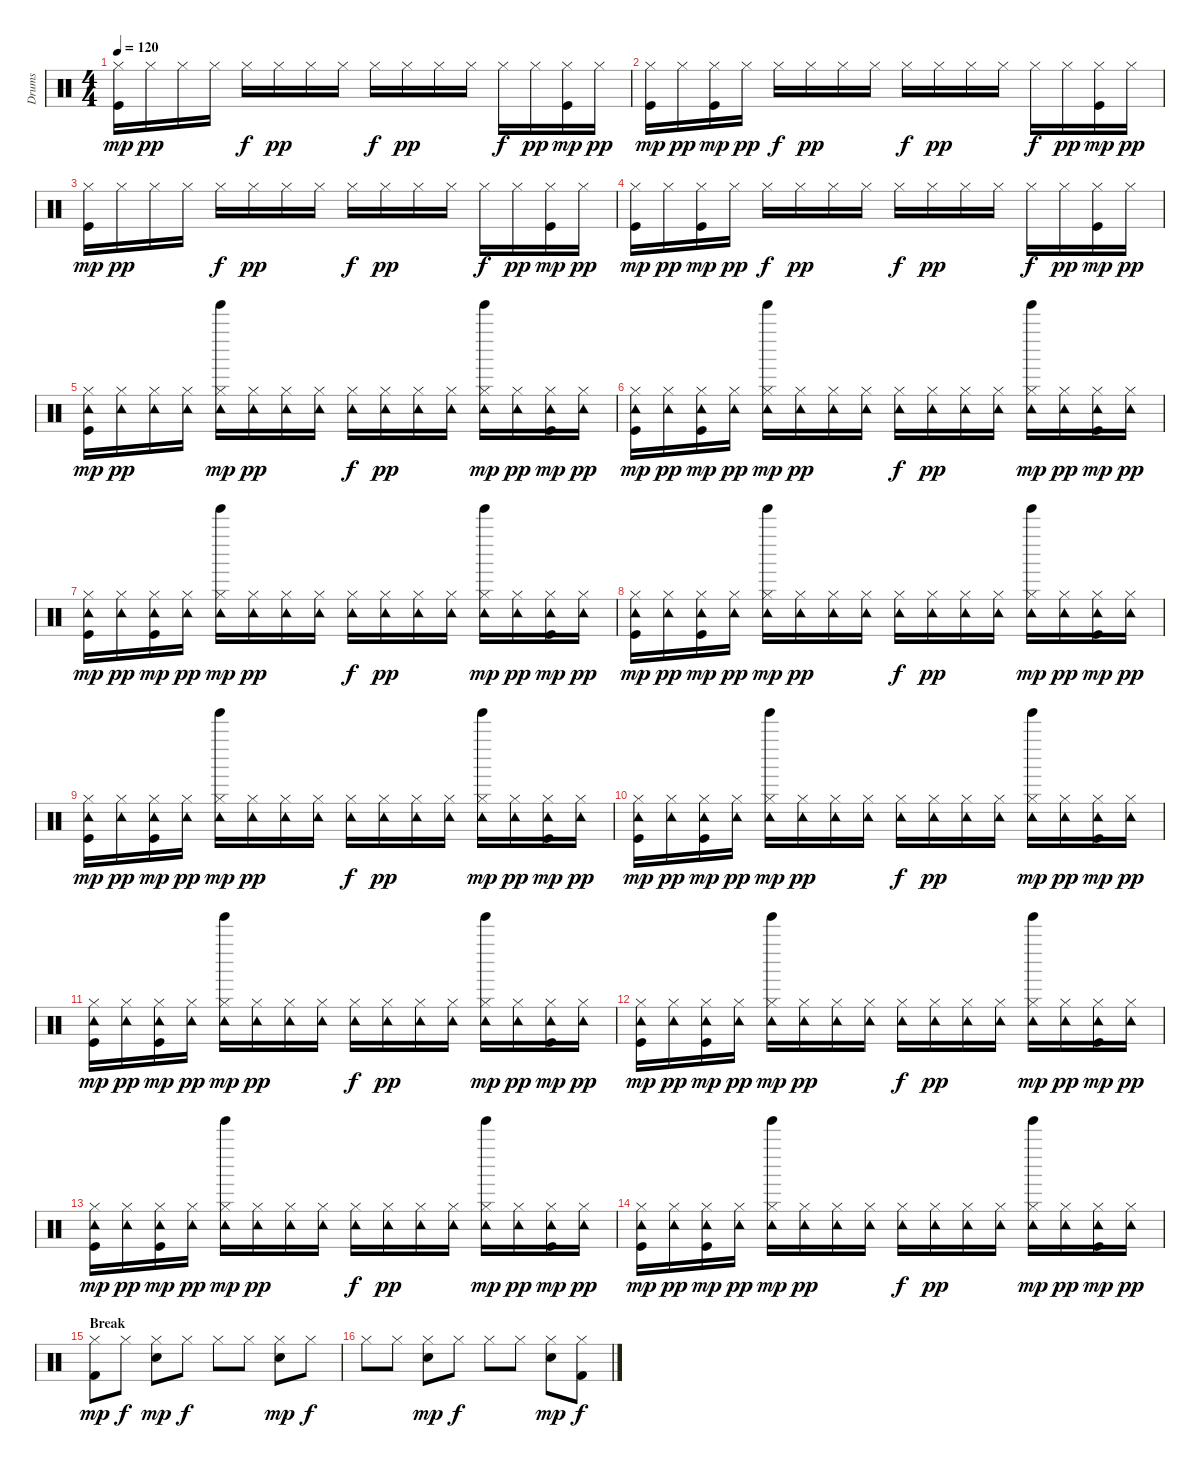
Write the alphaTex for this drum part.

\track ("Drums" "Drums") {instrument percussion}
\staff {score}
\articulation defaults
\ts (4 4)
\tempo 120
\clef neutral
\ks c
("Hi-Hat (closed)" "Kick (hit)").16{dy mp} "Hi-Hat (closed)".16{dy pp} "Hi-Hat (closed)".16 "Hi-Hat (closed)".16 "Hi-Hat (closed)".16{dy f} "Hi-Hat (closed)".16{dy pp} "Hi-Hat (closed)".16 "Hi-Hat (closed)".16 "Hi-Hat (closed)".16{dy f} "Hi-Hat (closed)".16{dy pp} "Hi-Hat (closed)".16 "Hi-Hat (closed)".16 "Hi-Hat (closed)".16{dy f} "Hi-Hat (closed)".16{dy pp} ("Hi-Hat (closed)" "Kick (hit)").16{dy mp} "Hi-Hat (closed)".16{dy pp} |
("Hi-Hat (closed)" "Kick (hit)").16{dy mp} "Hi-Hat (closed)".16{dy pp} ("Hi-Hat (closed)" "Kick (hit)").16{dy mp} "Hi-Hat (closed)".16{dy pp} "Hi-Hat (closed)".16{dy f} "Hi-Hat (closed)".16{dy pp} "Hi-Hat (closed)".16 "Hi-Hat (closed)".16 "Hi-Hat (closed)".16{dy f} "Hi-Hat (closed)".16{dy pp} "Hi-Hat (closed)".16 "Hi-Hat (closed)".16 "Hi-Hat (closed)".16{dy f} "Hi-Hat (closed)".16{dy pp} ("Hi-Hat (closed)" "Kick (hit)").16{dy mp} "Hi-Hat (closed)".16{dy pp} |
("Hi-Hat (closed)" "Kick (hit)").16{dy mp} "Hi-Hat (closed)".16{dy pp} "Hi-Hat (closed)".16 "Hi-Hat (closed)".16 "Hi-Hat (closed)".16{dy f} "Hi-Hat (closed)".16{dy pp} "Hi-Hat (closed)".16 "Hi-Hat (closed)".16 "Hi-Hat (closed)".16{dy f} "Hi-Hat (closed)".16{dy pp} "Hi-Hat (closed)".16 "Hi-Hat (closed)".16 "Hi-Hat (closed)".16{dy f} "Hi-Hat (closed)".16{dy pp} ("Hi-Hat (closed)" "Kick (hit)").16{dy mp} "Hi-Hat (closed)".16{dy pp} |
("Hi-Hat (closed)" "Kick (hit)").16{dy mp} "Hi-Hat (closed)".16{dy pp} ("Hi-Hat (closed)" "Kick (hit)").16{dy mp} "Hi-Hat (closed)".16{dy pp} "Hi-Hat (closed)".16{dy f} "Hi-Hat (closed)".16{dy pp} "Hi-Hat (closed)".16 "Hi-Hat (closed)".16 "Hi-Hat (closed)".16{dy f} "Hi-Hat (closed)".16{dy pp} "Hi-Hat (closed)".16 "Hi-Hat (closed)".16 "Hi-Hat (closed)".16{dy f} "Hi-Hat (closed)".16{dy pp} ("Hi-Hat (closed)" "Kick (hit)").16{dy mp} "Hi-Hat (closed)".16{dy pp} |
("Tambourine (hit)" "Hi-Hat (closed)" "Kick (hit)").16{dy mp} ("Tambourine (hit)" "Hi-Hat (closed)").16{dy pp} ("Tambourine (hit)" "Hi-Hat (closed)").16 ("Tambourine (hit)" "Hi-Hat (closed)").16 ("Tambourine (hit)" "Hi-Hat (closed)" "Tinkle Bell (hit)").16{dy mp} ("Tambourine (hit)" "Hi-Hat (closed)").16{dy pp} ("Tambourine (hit)" "Hi-Hat (closed)").16 ("Tambourine (hit)" "Hi-Hat (closed)").16 ("Tambourine (hit)" "Hi-Hat (closed)").16{dy f} ("Tambourine (hit)" "Hi-Hat (closed)").16{dy pp} ("Tambourine (hit)" "Hi-Hat (closed)").16 ("Tambourine (hit)" "Hi-Hat (closed)").16 ("Tambourine (hit)" "Hi-Hat (closed)" "Tinkle Bell (hit)").16{dy mp} ("Tambourine (hit)" "Hi-Hat (closed)").16{dy pp} ("Tambourine (hit)" "Hi-Hat (closed)" "Kick (hit)").16{dy mp} ("Tambourine (hit)" "Hi-Hat (closed)").16{dy pp} |
("Tambourine (hit)" "Hi-Hat (closed)" "Kick (hit)").16{dy mp} ("Tambourine (hit)" "Hi-Hat (closed)").16{dy pp} ("Tambourine (hit)" "Hi-Hat (closed)" "Kick (hit)").16{dy mp} ("Tambourine (hit)" "Hi-Hat (closed)").16{dy pp} ("Tambourine (hit)" "Hi-Hat (closed)" "Tinkle Bell (hit)").16{dy mp} ("Tambourine (hit)" "Hi-Hat (closed)").16{dy pp} ("Tambourine (hit)" "Hi-Hat (closed)").16 ("Tambourine (hit)" "Hi-Hat (closed)").16 ("Tambourine (hit)" "Hi-Hat (closed)").16{dy f} ("Tambourine (hit)" "Hi-Hat (closed)").16{dy pp} ("Tambourine (hit)" "Hi-Hat (closed)").16 ("Tambourine (hit)" "Hi-Hat (closed)").16 ("Tambourine (hit)" "Hi-Hat (closed)" "Tinkle Bell (hit)").16{dy mp} ("Tambourine (hit)" "Hi-Hat (closed)").16{dy pp} ("Tambourine (hit)" "Hi-Hat (closed)" "Kick (hit)").16{dy mp} ("Tambourine (hit)" "Hi-Hat (closed)").16{dy pp} |
("Tambourine (hit)" "Hi-Hat (closed)" "Kick (hit)").16{dy mp} ("Tambourine (hit)" "Hi-Hat (closed)").16{dy pp} ("Tambourine (hit)" "Hi-Hat (closed)" "Kick (hit)").16{dy mp} ("Tambourine (hit)" "Hi-Hat (closed)").16{dy pp} ("Tambourine (hit)" "Hi-Hat (closed)" "Tinkle Bell (hit)").16{dy mp} ("Tambourine (hit)" "Hi-Hat (closed)").16{dy pp} ("Tambourine (hit)" "Hi-Hat (closed)").16 ("Tambourine (hit)" "Hi-Hat (closed)").16 ("Tambourine (hit)" "Hi-Hat (closed)").16{dy f} ("Tambourine (hit)" "Hi-Hat (closed)").16{dy pp} ("Tambourine (hit)" "Hi-Hat (closed)").16 ("Tambourine (hit)" "Hi-Hat (closed)").16 ("Tambourine (hit)" "Hi-Hat (closed)" "Tinkle Bell (hit)").16{dy mp} ("Tambourine (hit)" "Hi-Hat (closed)").16{dy pp} ("Tambourine (hit)" "Hi-Hat (closed)" "Kick (hit)").16{dy mp} ("Tambourine (hit)" "Hi-Hat (closed)").16{dy pp} |
("Tambourine (hit)" "Hi-Hat (closed)" "Kick (hit)").16{dy mp} ("Tambourine (hit)" "Hi-Hat (closed)").16{dy pp} ("Tambourine (hit)" "Hi-Hat (closed)" "Kick (hit)").16{dy mp} ("Tambourine (hit)" "Hi-Hat (closed)").16{dy pp} ("Tambourine (hit)" "Hi-Hat (closed)" "Tinkle Bell (hit)").16{dy mp} ("Tambourine (hit)" "Hi-Hat (closed)").16{dy pp} ("Tambourine (hit)" "Hi-Hat (closed)").16 ("Tambourine (hit)" "Hi-Hat (closed)").16 ("Tambourine (hit)" "Hi-Hat (closed)").16{dy f} ("Tambourine (hit)" "Hi-Hat (closed)").16{dy pp} ("Tambourine (hit)" "Hi-Hat (closed)").16 ("Tambourine (hit)" "Hi-Hat (closed)").16 ("Tambourine (hit)" "Hi-Hat (closed)" "Tinkle Bell (hit)").16{dy mp} ("Tambourine (hit)" "Hi-Hat (closed)").16{dy pp} ("Tambourine (hit)" "Hi-Hat (closed)" "Kick (hit)").16{dy mp} ("Tambourine (hit)" "Hi-Hat (closed)").16{dy pp} |
("Tambourine (hit)" "Hi-Hat (closed)" "Kick (hit)").16{dy mp} ("Tambourine (hit)" "Hi-Hat (closed)").16{dy pp} ("Tambourine (hit)" "Hi-Hat (closed)" "Kick (hit)").16{dy mp} ("Tambourine (hit)" "Hi-Hat (closed)").16{dy pp} ("Tambourine (hit)" "Hi-Hat (closed)" "Tinkle Bell (hit)").16{dy mp} ("Tambourine (hit)" "Hi-Hat (closed)").16{dy pp} ("Tambourine (hit)" "Hi-Hat (closed)").16 ("Tambourine (hit)" "Hi-Hat (closed)").16 ("Tambourine (hit)" "Hi-Hat (closed)").16{dy f} ("Tambourine (hit)" "Hi-Hat (closed)").16{dy pp} ("Tambourine (hit)" "Hi-Hat (closed)").16 ("Tambourine (hit)" "Hi-Hat (closed)").16 ("Tambourine (hit)" "Hi-Hat (closed)" "Tinkle Bell (hit)").16{dy mp} ("Tambourine (hit)" "Hi-Hat (closed)").16{dy pp} ("Tambourine (hit)" "Hi-Hat (closed)" "Kick (hit)").16{dy mp} ("Tambourine (hit)" "Hi-Hat (closed)").16{dy pp} |
("Tambourine (hit)" "Hi-Hat (closed)" "Kick (hit)").16{dy mp} ("Tambourine (hit)" "Hi-Hat (closed)").16{dy pp} ("Tambourine (hit)" "Hi-Hat (closed)" "Kick (hit)").16{dy mp} ("Tambourine (hit)" "Hi-Hat (closed)").16{dy pp} ("Tambourine (hit)" "Hi-Hat (closed)" "Tinkle Bell (hit)").16{dy mp} ("Tambourine (hit)" "Hi-Hat (closed)").16{dy pp} ("Tambourine (hit)" "Hi-Hat (closed)").16 ("Tambourine (hit)" "Hi-Hat (closed)").16 ("Tambourine (hit)" "Hi-Hat (closed)").16{dy f} ("Tambourine (hit)" "Hi-Hat (closed)").16{dy pp} ("Tambourine (hit)" "Hi-Hat (closed)").16 ("Tambourine (hit)" "Hi-Hat (closed)").16 ("Tambourine (hit)" "Hi-Hat (closed)" "Tinkle Bell (hit)").16{dy mp} ("Tambourine (hit)" "Hi-Hat (closed)").16{dy pp} ("Tambourine (hit)" "Hi-Hat (closed)" "Kick (hit)").16{dy mp} ("Tambourine (hit)" "Hi-Hat (closed)").16{dy pp} |
("Tambourine (hit)" "Hi-Hat (closed)" "Kick (hit)").16{dy mp} ("Tambourine (hit)" "Hi-Hat (closed)").16{dy pp} ("Tambourine (hit)" "Hi-Hat (closed)" "Kick (hit)").16{dy mp} ("Tambourine (hit)" "Hi-Hat (closed)").16{dy pp} ("Tambourine (hit)" "Hi-Hat (closed)" "Tinkle Bell (hit)").16{dy mp} ("Tambourine (hit)" "Hi-Hat (closed)").16{dy pp} ("Tambourine (hit)" "Hi-Hat (closed)").16 ("Tambourine (hit)" "Hi-Hat (closed)").16 ("Tambourine (hit)" "Hi-Hat (closed)").16{dy f} ("Tambourine (hit)" "Hi-Hat (closed)").16{dy pp} ("Tambourine (hit)" "Hi-Hat (closed)").16 ("Tambourine (hit)" "Hi-Hat (closed)").16 ("Tambourine (hit)" "Hi-Hat (closed)" "Tinkle Bell (hit)").16{dy mp} ("Tambourine (hit)" "Hi-Hat (closed)").16{dy pp} ("Tambourine (hit)" "Hi-Hat (closed)" "Kick (hit)").16{dy mp} ("Tambourine (hit)" "Hi-Hat (closed)").16{dy pp} |
("Tambourine (hit)" "Hi-Hat (closed)" "Kick (hit)").16{dy mp} ("Tambourine (hit)" "Hi-Hat (closed)").16{dy pp} ("Tambourine (hit)" "Hi-Hat (closed)" "Kick (hit)").16{dy mp} ("Tambourine (hit)" "Hi-Hat (closed)").16{dy pp} ("Tambourine (hit)" "Hi-Hat (closed)" "Tinkle Bell (hit)").16{dy mp} ("Tambourine (hit)" "Hi-Hat (closed)").16{dy pp} ("Tambourine (hit)" "Hi-Hat (closed)").16 ("Tambourine (hit)" "Hi-Hat (closed)").16 ("Tambourine (hit)" "Hi-Hat (closed)").16{dy f} ("Tambourine (hit)" "Hi-Hat (closed)").16{dy pp} ("Tambourine (hit)" "Hi-Hat (closed)").16 ("Tambourine (hit)" "Hi-Hat (closed)").16 ("Tambourine (hit)" "Hi-Hat (closed)" "Tinkle Bell (hit)").16{dy mp} ("Tambourine (hit)" "Hi-Hat (closed)").16{dy pp} ("Tambourine (hit)" "Hi-Hat (closed)" "Kick (hit)").16{dy mp} ("Tambourine (hit)" "Hi-Hat (closed)").16{dy pp} |
("Tambourine (hit)" "Hi-Hat (closed)" "Kick (hit)").16{dy mp} ("Tambourine (hit)" "Hi-Hat (closed)").16{dy pp} ("Tambourine (hit)" "Hi-Hat (closed)" "Kick (hit)").16{dy mp} ("Tambourine (hit)" "Hi-Hat (closed)").16{dy pp} ("Tambourine (hit)" "Hi-Hat (closed)" "Tinkle Bell (hit)").16{dy mp} ("Tambourine (hit)" "Hi-Hat (closed)").16{dy pp} ("Tambourine (hit)" "Hi-Hat (closed)").16 ("Tambourine (hit)" "Hi-Hat (closed)").16 ("Tambourine (hit)" "Hi-Hat (closed)").16{dy f} ("Tambourine (hit)" "Hi-Hat (closed)").16{dy pp} ("Tambourine (hit)" "Hi-Hat (closed)").16 ("Tambourine (hit)" "Hi-Hat (closed)").16 ("Tambourine (hit)" "Hi-Hat (closed)" "Tinkle Bell (hit)").16{dy mp} ("Tambourine (hit)" "Hi-Hat (closed)").16{dy pp} ("Tambourine (hit)" "Hi-Hat (closed)" "Kick (hit)").16{dy mp} ("Tambourine (hit)" "Hi-Hat (closed)").16{dy pp} |
("Tambourine (hit)" "Hi-Hat (closed)" "Kick (hit)").16{dy mp} ("Tambourine (hit)" "Hi-Hat (closed)").16{dy pp} ("Tambourine (hit)" "Hi-Hat (closed)" "Kick (hit)").16{dy mp} ("Tambourine (hit)" "Hi-Hat (closed)").16{dy pp} ("Tambourine (hit)" "Hi-Hat (closed)" "Tinkle Bell (hit)").16{dy mp} ("Tambourine (hit)" "Hi-Hat (closed)").16{dy pp} ("Tambourine (hit)" "Hi-Hat (closed)").16 ("Tambourine (hit)" "Hi-Hat (closed)").16 ("Tambourine (hit)" "Hi-Hat (closed)").16{dy f} ("Tambourine (hit)" "Hi-Hat (closed)").16{dy pp} ("Tambourine (hit)" "Hi-Hat (closed)").16 ("Tambourine (hit)" "Hi-Hat (closed)").16 ("Tambourine (hit)" "Hi-Hat (closed)" "Tinkle Bell (hit)").16{dy mp} ("Tambourine (hit)" "Hi-Hat (closed)").16{dy pp} ("Tambourine (hit)" "Hi-Hat (closed)" "Kick (hit)").16{dy mp} ("Tambourine (hit)" "Hi-Hat (closed)").16{dy pp} |
\section ("" "Break")
("Hi-Hat (closed)" "Kick (hit) 2").8{dy mp} "Hi-Hat (closed)".8{dy f} ("Hi-Hat (closed)" "Electric Snare (hit)").8{dy mp} "Hi-Hat (closed)".8{dy f} "Hi-Hat (closed)".8 "Hi-Hat (closed)".8 ("Hi-Hat (closed)" "Electric Snare (hit)").8{dy mp} "Hi-Hat (closed)".8{dy f} |
"Hi-Hat (closed)".8 "Hi-Hat (closed)".8 ("Hi-Hat (closed)" "Electric Snare (hit)").8{dy mp} "Hi-Hat (closed)".8{dy f} "Hi-Hat (closed)".8 "Hi-Hat (closed)".8 ("Hi-Hat (closed)" "Electric Snare (hit)").8{dy mp} ("Hi-Hat (closed)" "Kick (hit) 2").8{dy f}
